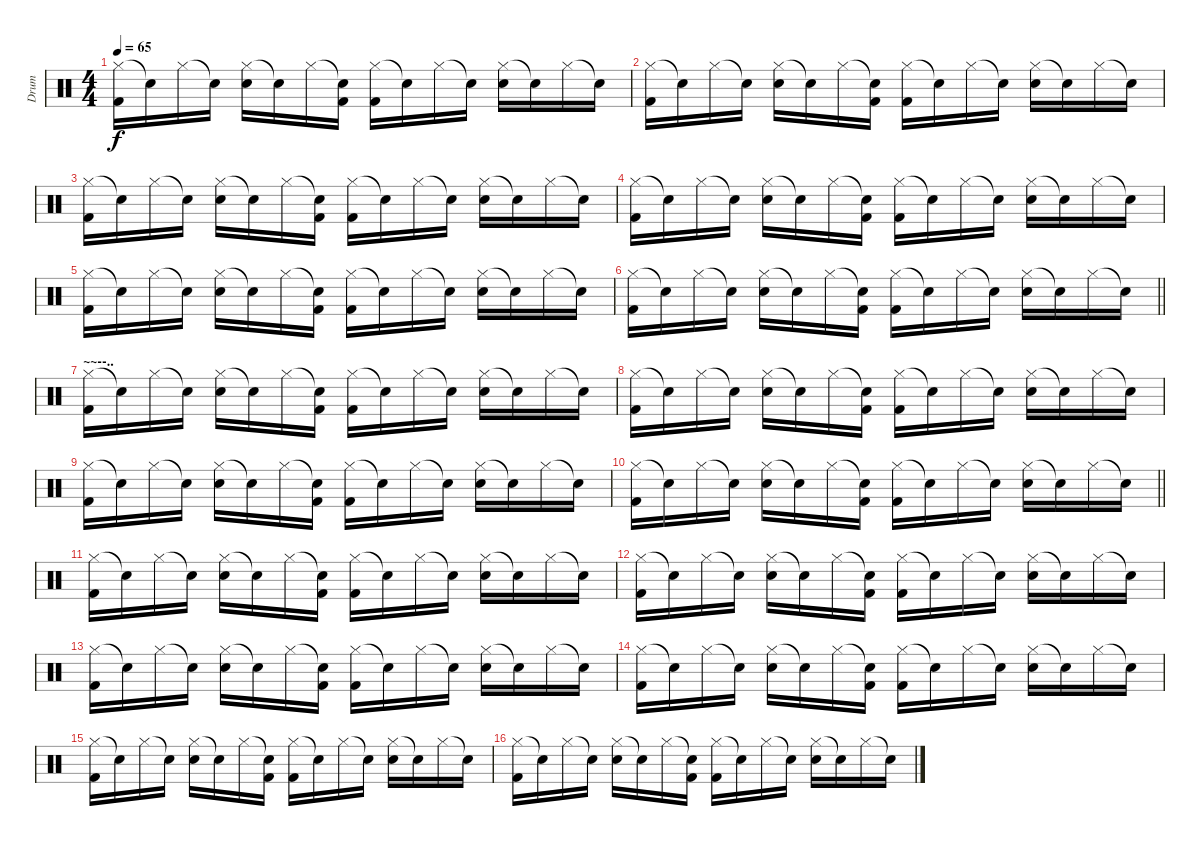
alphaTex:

\track ("Drum" "Drum") {instrument percussion}
\staff {score}
\articulation defaults
\ts (4 4)
\tempo 65
\clef neutral
\ks c
("Hi-Hat (closed)" "Kick (hit) 2").16{dy f} "Snare (hit)"{t}.16 "Hi-Hat (closed)".16 "Snare (hit)"{t}.16 ("Hi-Hat (closed)" "Snare (hit) 2").16 "Snare (hit)"{t}.16 "Hi-Hat (closed)".16 ("Snare (hit)"{t} "Kick (hit) 2").16 ("Hi-Hat (closed)" "Kick (hit) 2").16 "Snare (hit)"{t}.16 "Hi-Hat (closed)".16 "Snare (hit)"{t}.16 ("Hi-Hat (closed)" "Snare (hit) 2").16 "Snare (hit)"{t}.16 "Hi-Hat (closed)".16 "Snare (hit)"{t}.16 |
("Hi-Hat (closed)" "Kick (hit) 2").16 "Snare (hit)"{t}.16 "Hi-Hat (closed)".16 "Snare (hit)"{t}.16 ("Hi-Hat (closed)" "Snare (hit) 2").16 "Snare (hit)"{t}.16 "Hi-Hat (closed)".16 ("Snare (hit)"{t} "Kick (hit) 2").16 ("Hi-Hat (closed)" "Kick (hit) 2").16 "Snare (hit)"{t}.16 "Hi-Hat (closed)".16 "Snare (hit)"{t}.16 ("Hi-Hat (closed)" "Snare (hit) 2").16 "Snare (hit)"{t}.16 "Hi-Hat (closed)".16 "Snare (hit)"{t}.16 |
("Hi-Hat (closed)" "Kick (hit) 2").16 "Snare (hit)"{t}.16 "Hi-Hat (closed)".16 "Snare (hit)"{t}.16 ("Hi-Hat (closed)" "Snare (hit) 2").16 "Snare (hit)"{t}.16 "Hi-Hat (closed)".16 ("Snare (hit)"{t} "Kick (hit) 2").16 ("Hi-Hat (closed)" "Kick (hit) 2").16 "Snare (hit)"{t}.16 "Hi-Hat (closed)".16 "Snare (hit)"{t}.16 ("Hi-Hat (closed)" "Snare (hit) 2").16 "Snare (hit)"{t}.16 "Hi-Hat (closed)".16 "Snare (hit)"{t}.16 |
("Hi-Hat (closed)" "Kick (hit) 2").16 "Snare (hit)"{t}.16 "Hi-Hat (closed)".16 "Snare (hit)"{t}.16 ("Hi-Hat (closed)" "Snare (hit) 2").16 "Snare (hit)"{t}.16 "Hi-Hat (closed)".16 ("Snare (hit)"{t} "Kick (hit) 2").16 ("Hi-Hat (closed)" "Kick (hit) 2").16 "Snare (hit)"{t}.16 "Hi-Hat (closed)".16 "Snare (hit)"{t}.16 ("Hi-Hat (closed)" "Snare (hit) 2").16 "Snare (hit)"{t}.16 "Hi-Hat (closed)".16 "Snare (hit)"{t}.16 |
("Hi-Hat (closed)" "Kick (hit) 2").16 "Snare (hit)"{t}.16 "Hi-Hat (closed)".16 "Snare (hit)"{t}.16 ("Hi-Hat (closed)" "Snare (hit) 2").16 "Snare (hit)"{t}.16 "Hi-Hat (closed)".16 ("Snare (hit)"{t} "Kick (hit) 2").16 ("Hi-Hat (closed)" "Kick (hit) 2").16 "Snare (hit)"{t}.16 "Hi-Hat (closed)".16 "Snare (hit)"{t}.16 ("Hi-Hat (closed)" "Snare (hit) 2").16 "Snare (hit)"{t}.16 "Hi-Hat (closed)".16 "Snare (hit)"{t}.16 |
\barLineRight lightlight
("Hi-Hat (closed)" "Kick (hit) 2").16 "Snare (hit)"{t}.16 "Hi-Hat (closed)".16 "Snare (hit)"{t}.16 ("Hi-Hat (closed)" "Snare (hit) 2").16 "Snare (hit)"{t}.16 "Hi-Hat (closed)".16 ("Snare (hit)"{t} "Kick (hit) 2").16 ("Hi-Hat (closed)" "Kick (hit) 2").16 "Snare (hit)"{t}.16 "Hi-Hat (closed)".16 "Snare (hit)"{t}.16 ("Hi-Hat (closed)" "Snare (hit) 2").16 "Snare (hit)"{t}.16 "Hi-Hat (closed)".16 "Snare (hit)"{t}.16 |
\section ("" "~~--..")
("Hi-Hat (closed)" "Kick (hit) 2").16 "Snare (hit)"{t}.16 "Hi-Hat (closed)".16 "Snare (hit)"{t}.16 ("Hi-Hat (closed)" "Snare (hit) 2").16 "Snare (hit)"{t}.16 "Hi-Hat (closed)".16 ("Snare (hit)"{t} "Kick (hit) 2").16 ("Hi-Hat (closed)" "Kick (hit) 2").16 "Snare (hit)"{t}.16 "Hi-Hat (closed)".16 "Snare (hit)"{t}.16 ("Hi-Hat (closed)" "Snare (hit) 2").16 "Snare (hit)"{t}.16 "Hi-Hat (closed)".16 "Snare (hit)"{t}.16 |
("Hi-Hat (closed)" "Kick (hit) 2").16 "Snare (hit)"{t}.16 "Hi-Hat (closed)".16 "Snare (hit)"{t}.16 ("Hi-Hat (closed)" "Snare (hit) 2").16 "Snare (hit)"{t}.16 "Hi-Hat (closed)".16 ("Snare (hit)"{t} "Kick (hit) 2").16 ("Hi-Hat (closed)" "Kick (hit) 2").16 "Snare (hit)"{t}.16 "Hi-Hat (closed)".16 "Snare (hit)"{t}.16 ("Hi-Hat (closed)" "Snare (hit) 2").16 "Snare (hit)"{t}.16 "Hi-Hat (closed)".16 "Snare (hit)"{t}.16 |
("Hi-Hat (closed)" "Kick (hit) 2").16 "Snare (hit)"{t}.16 "Hi-Hat (closed)".16 "Snare (hit)"{t}.16 ("Hi-Hat (closed)" "Snare (hit) 2").16 "Snare (hit)"{t}.16 "Hi-Hat (closed)".16 ("Snare (hit)"{t} "Kick (hit) 2").16 ("Hi-Hat (closed)" "Kick (hit) 2").16 "Snare (hit)"{t}.16 "Hi-Hat (closed)".16 "Snare (hit)"{t}.16 ("Hi-Hat (closed)" "Snare (hit) 2").16 "Snare (hit)"{t}.16 "Hi-Hat (closed)".16 "Snare (hit)"{t}.16 |
\barLineRight lightlight
("Hi-Hat (closed)" "Kick (hit) 2").16 "Snare (hit)"{t}.16 "Hi-Hat (closed)".16 "Snare (hit)"{t}.16 ("Hi-Hat (closed)" "Snare (hit) 2").16 "Snare (hit)"{t}.16 "Hi-Hat (closed)".16 ("Snare (hit)"{t} "Kick (hit) 2").16 ("Hi-Hat (closed)" "Kick (hit) 2").16 "Snare (hit)"{t}.16 "Hi-Hat (closed)".16 "Snare (hit)"{t}.16 ("Hi-Hat (closed)" "Snare (hit) 2").16 "Snare (hit)"{t}.16 "Hi-Hat (closed)".16 "Snare (hit)"{t}.16 |
("Hi-Hat (closed)" "Kick (hit) 2").16 "Snare (hit)"{t}.16 "Hi-Hat (closed)".16 "Snare (hit)"{t}.16 ("Hi-Hat (closed)" "Snare (hit) 2").16 "Snare (hit)"{t}.16 "Hi-Hat (closed)".16 ("Snare (hit)"{t} "Kick (hit) 2").16 ("Hi-Hat (closed)" "Kick (hit) 2").16 "Snare (hit)"{t}.16 "Hi-Hat (closed)".16 "Snare (hit)"{t}.16 ("Hi-Hat (closed)" "Snare (hit) 2").16 "Snare (hit)"{t}.16 "Hi-Hat (closed)".16 "Snare (hit)"{t}.16 |
("Hi-Hat (closed)" "Kick (hit) 2").16 "Snare (hit)"{t}.16 "Hi-Hat (closed)".16 "Snare (hit)"{t}.16 ("Hi-Hat (closed)" "Snare (hit) 2").16 "Snare (hit)"{t}.16 "Hi-Hat (closed)".16 ("Snare (hit)"{t} "Kick (hit) 2").16 ("Hi-Hat (closed)" "Kick (hit) 2").16 "Snare (hit)"{t}.16 "Hi-Hat (closed)".16 "Snare (hit)"{t}.16 ("Hi-Hat (closed)" "Snare (hit) 2").16 "Snare (hit)"{t}.16 "Hi-Hat (closed)".16 "Snare (hit)"{t}.16 |
("Hi-Hat (closed)" "Kick (hit) 2").16 "Snare (hit)"{t}.16 "Hi-Hat (closed)".16 "Snare (hit)"{t}.16 ("Hi-Hat (closed)" "Snare (hit) 2").16 "Snare (hit)"{t}.16 "Hi-Hat (closed)".16 ("Snare (hit)"{t} "Kick (hit) 2").16 ("Hi-Hat (closed)" "Kick (hit) 2").16 "Snare (hit)"{t}.16 "Hi-Hat (closed)".16 "Snare (hit)"{t}.16 ("Hi-Hat (closed)" "Snare (hit) 2").16 "Snare (hit)"{t}.16 "Hi-Hat (closed)".16 "Snare (hit)"{t}.16 |
("Hi-Hat (closed)" "Kick (hit) 2").16 "Snare (hit)"{t}.16 "Hi-Hat (closed)".16 "Snare (hit)"{t}.16 ("Hi-Hat (closed)" "Snare (hit) 2").16 "Snare (hit)"{t}.16 "Hi-Hat (closed)".16 ("Snare (hit)"{t} "Kick (hit) 2").16 ("Hi-Hat (closed)" "Kick (hit) 2").16 "Snare (hit)"{t}.16 "Hi-Hat (closed)".16 "Snare (hit)"{t}.16 ("Hi-Hat (closed)" "Snare (hit) 2").16 "Snare (hit)"{t}.16 "Hi-Hat (closed)".16 "Snare (hit)"{t}.16 |
("Hi-Hat (closed)" "Kick (hit) 2").16 "Snare (hit)"{t}.16 "Hi-Hat (closed)".16 "Snare (hit)"{t}.16 ("Hi-Hat (closed)" "Snare (hit) 2").16 "Snare (hit)"{t}.16 "Hi-Hat (closed)".16 ("Snare (hit)"{t} "Kick (hit) 2").16 ("Hi-Hat (closed)" "Kick (hit) 2").16 "Snare (hit)"{t}.16 "Hi-Hat (closed)".16 "Snare (hit)"{t}.16 ("Hi-Hat (closed)" "Snare (hit) 2").16 "Snare (hit)"{t}.16 "Hi-Hat (closed)".16 "Snare (hit)"{t}.16 |
("Hi-Hat (closed)" "Kick (hit) 2").16 "Snare (hit)"{t}.16 "Hi-Hat (closed)".16 "Snare (hit)"{t}.16 ("Hi-Hat (closed)" "Snare (hit) 2").16 "Snare (hit)"{t}.16 "Hi-Hat (closed)".16 ("Snare (hit)"{t} "Kick (hit) 2").16 ("Hi-Hat (closed)" "Kick (hit) 2").16 "Snare (hit)"{t}.16 "Hi-Hat (closed)".16 "Snare (hit)"{t}.16 ("Hi-Hat (closed)" "Snare (hit) 2").16 "Snare (hit)"{t}.16 "Hi-Hat (closed)".16 "Snare (hit)"{t}.16
